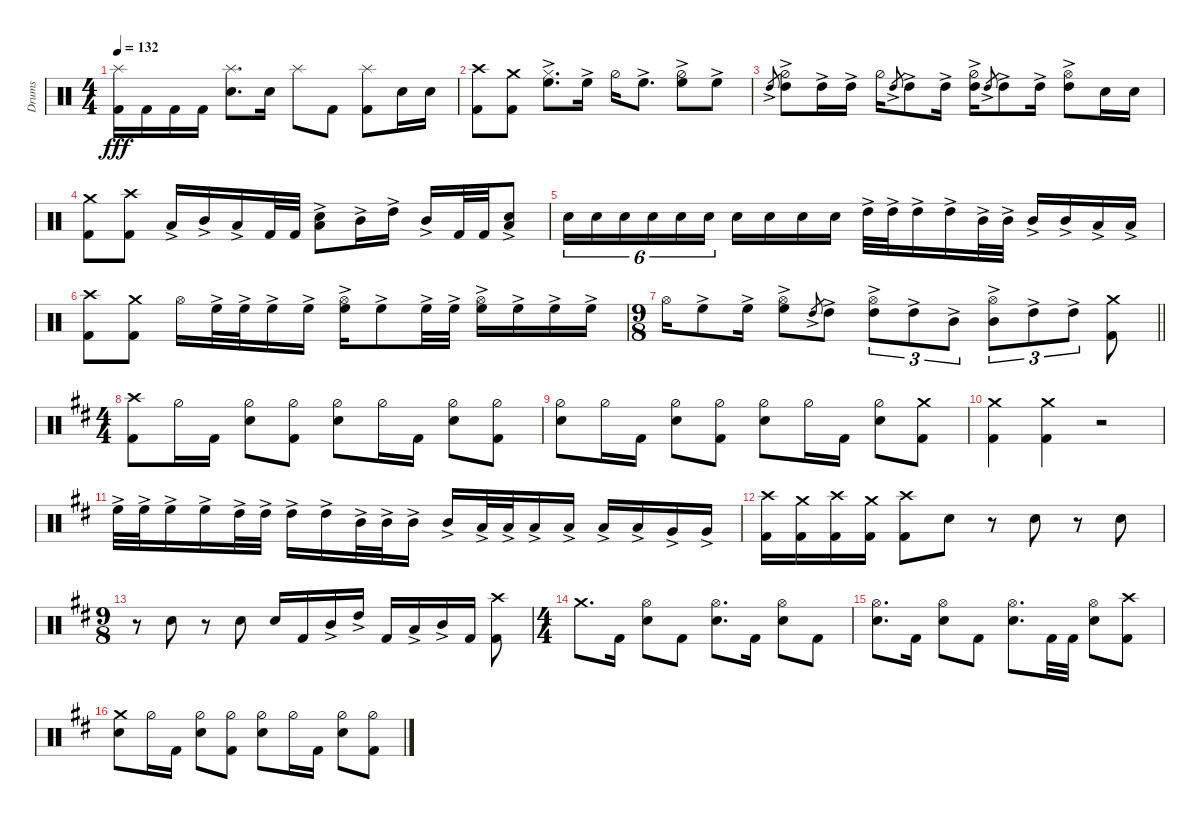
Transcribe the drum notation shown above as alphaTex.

\defaultSystemsLayout 4
\bracketExtendMode groupsimilarinstruments
\otherSystemsTrackNameOrientation horizontal
\track ("Drumkit" "Drums") {multiBarRest instrument percussion}
\staff {score}
\articulation defaults
\ts (4 4)
\tempo 132
\clef neutral
\ks c
("Kick (hit) 2" "Splash (hit)").16{dy fff} "Kick (hit) 2".16 "Kick (hit) 2".16 "Kick (hit) 2".16 ("Snare (hit) 2" "Splash (hit)").8{d} "Snare (hit) 2".16 "Splash (hit)".8 "Kick (hit) 2".8{beam split} ("Kick (hit) 2" "Splash (hit)").8{beam merge} "Snare (hit) 2".16{beam merge} "Snare (hit) 2".16 |
("Crash high (hit)" "Kick (hit) 2").8 ("Crash medium (hit)" "Kick (hit) 2").8 ("High Floor Tom (hit)"{ac} "Hi-Hat (closed)").8{d} "High Floor Tom (hit)"{ac}.16 "Hi-Hat (half)".16 "High Floor Tom (hit)"{ac}.8{d beam split} ("High Floor Tom (hit)"{ac} "Hi-Hat (half)").8{beam merge} "High Floor Tom (hit)"{ac}.8 |
"High Tom (hit)"{ac}.8{gr} ("Hi-Hat (half)" "High Tom (hit)"{ac}).8 "High Tom (hit)"{ac}.16 "High Tom (hit)"{ac}.16 "Hi-Hat (half)".16 "High Tom (hit)"{ac}.8{gr} "High Tom (hit)"{ac}.8 "High Tom (hit)"{ac}.16 ("Hi-Hat (half)" "High Tom (hit)"{ac}).16 "High Tom (hit)"{ac}.8{gr} "High Tom (hit)"{ac}.8 "High Tom (hit)"{ac}.16{beam split} ("Hi-Hat (open)" "High Tom (hit)"{ac}).8{beam merge} "Snare (hit) 2".16{beam merge} "Snare (hit) 2".16 |
("Kick (hit) 2" "Crash medium (hit)").8 ("Kick (hit) 2" "Crash high (hit)").8 "Low Tom (hit)"{ac}.16 "Mid Tom (hit)"{ac}.16 "Low Tom (hit)"{ac}.16 "Kick (hit) 2".32 "Kick (hit) 2".32 ("Low Tom (hit)"{ac} "Snare (hit) 2").8 "Mid Tom (hit)"{ac}.16 "High Tom (hit)"{ac}.16{beam split} "Mid Tom (hit)"{ac}.16 "Kick (hit) 2".32{beam merge} "Kick (hit) 2".32{beam merge} ("Snare (hit) 2" "Low Tom (hit)"{ac}).8 |
"Snare (hit) 2".16{tu (6 4)} "Snare (hit) 2".16{tu (6 4)} "Snare (hit) 2".16{tu (6 4)} "Snare (hit) 2".16{tu (6 4)} "Snare (hit) 2".16{tu (6 4)} "Snare (hit) 2".16{tu (6 4)} "Snare (hit) 2".16 "Snare (hit) 2".16 "Snare (hit) 2".16 "Snare (hit) 2".16 "High Tom (hit)"{ac}.32 "High Tom (hit)"{ac}.32 "High Tom (hit)"{ac}.16 "High Tom (hit)"{ac}.16 "Mid Tom (hit)"{ac}.32 "Mid Tom (hit)"{ac}.32{beam split} "Mid Tom (hit)"{ac}.16 "Mid Tom (hit)"{ac}.16{beam merge} "Low Tom (hit)"{ac}.16{beam merge} "Low Tom (hit)"{ac}.16 |
("Crash high (hit)" "Kick (hit) 2").8 ("Crash medium (hit)" "Kick (hit) 2").8 "Hi-Hat (open)".16 "High Floor Tom (hit)"{ac}.32 "High Floor Tom (hit)"{ac}.32 "High Floor Tom (hit)"{ac}.16 "High Floor Tom (hit)"{ac}.16 ("High Floor Tom (hit)"{ac} "Hi-Hat (open)").16 "High Floor Tom (hit)"{ac}.8 "High Floor Tom (hit)"{ac}.32 "High Floor Tom (hit)"{ac}.32{beam split} ("High Floor Tom (hit)"{ac} "Hi-Hat (open)").16 "High Floor Tom (hit)"{ac}.16{beam merge} "High Floor Tom (hit)"{ac}.16{beam merge} "High Floor Tom (hit)"{ac}.16 |
\ts (9 8)
\beaming (8 2 2 3)
\barLineRight lightlight "Hi-Hat (open)".16 "High Floor Tom (hit)"{ac}.8 "High Floor Tom (hit)"{ac}.16
("High Floor Tom (hit)"{ac} "Hi-Hat (open)").8 "High Tom (hit)"{ac}.8{gr} "High Tom (hit)"{ac}.8 ("High Tom (hit)"{ac} "Hi-Hat (open)").8{tu (3 2)} "High Tom (hit)"{ac}.8{tu (3 2)} "Mid Tom (hit)"{ac}.8{tu (3 2)} ("Mid Tom (hit)"{ac} "Hi-Hat (open)").8{tu (3 2)} "High Tom (hit)"{ac}.8{tu (3 2)} "High Tom (hit)"{ac}.8{tu (3 2)} ("Crash medium (hit)" "Kick (hit) 2").8 |
\ts (4 4)
\beaming (8 2 2 3)
\ks d
("Kick (hit) 2"{acc forcenatural} "Crash high (hit)"{acc forcenatural}).8 "Hi-Hat (half)"{acc forcenatural}.16 "Kick (hit) 2"{acc forcenatural}.16 ("Snare (hit) 2"{acc forcenatural} "Hi-Hat (half)"{acc forcenatural}).8 ("Kick (hit) 2"{acc forcenatural} "Hi-Hat (half)"{acc forcenatural}).8 ("Snare (hit) 2"{acc forcenatural} "Hi-Hat (half)"{acc forcenatural}).8 "Hi-Hat (half)"{acc forcenatural}.16 "Kick (hit) 2"{acc forcenatural}.16{beam split} ("Snare (hit) 2"{acc forcenatural} "Hi-Hat (half)"{acc forcenatural}).8{beam merge} ("Kick (hit) 2"{acc forcenatural} "Hi-Hat (half)"{acc forcenatural}).8 |
("Snare (hit) 2"{acc forcenatural} "Hi-Hat (half)"{acc forcenatural}).8 "Hi-Hat (half)"{acc forcenatural}.16 "Kick (hit) 2"{acc forcenatural}.16 ("Snare (hit) 2"{acc forcenatural} "Hi-Hat (half)"{acc forcenatural}).8 ("Kick (hit) 2"{acc forcenatural} "Hi-Hat (half)"{acc forcenatural}).8 ("Snare (hit) 2"{acc forcenatural} "Hi-Hat (half)"{acc forcenatural}).8 "Hi-Hat (half)"{acc forcenatural}.16 "Kick (hit) 2"{acc forcenatural}.16{beam split} ("Snare (hit) 2"{acc forcenatural} "Hi-Hat (half)"{acc forcenatural}).8{beam merge} ("Kick (hit) 2"{acc forcenatural} "Crash medium (hit)"{acc forcenatural}).8 |
("Kick (hit) 2"{acc forcenatural} "Crash medium (hit)"{acc forcenatural}).4 ("Crash medium (hit)"{acc forcenatural} "Kick (hit) 2"{acc forcenatural}).4 r.2 |
"High Floor Tom (hit)"{ac acc forcenatural}.32 "High Floor Tom (hit)"{ac acc forcenatural}.32 "High Floor Tom (hit)"{ac acc forcenatural}.16 "High Floor Tom (hit)"{ac acc forcenatural}.16 "High Tom (hit)"{ac acc forcenatural}.32 "High Tom (hit)"{ac acc forcenatural}.32 "High Tom (hit)"{ac acc forcenatural}.16 "High Tom (hit)"{ac acc forcenatural}.16 "Mid Tom (hit)"{ac acc forcenatural}.32 "Mid Tom (hit)"{ac acc forcenatural}.32 "Mid Tom (hit)"{ac acc forcenatural}.16 "Mid Tom (hit)"{ac acc forcenatural}.16 "Low Tom (hit)"{ac acc forcenatural}.32 "Low Tom (hit)"{ac acc forcenatural}.32 "Low Tom (hit)"{ac acc forcenatural}.16 "Low Tom (hit)"{ac acc forcenatural}.16{beam split} "Low Tom (hit)"{ac acc forcenatural}.16 "Low Tom (hit)"{ac acc forcenatural}.16{beam merge} "Very Low Tom (hit)"{ac acc forcenatural}.16{beam merge} "Very Low Tom (hit)"{ac acc forcenatural}.16 |
("Kick (hit) 2"{acc forcenatural} "Crash high (hit)"{acc forcenatural}).16 ("Kick (hit) 2"{acc forcenatural} "Crash medium (hit)"{acc forcenatural}).16 ("Kick (hit) 2"{acc forcenatural} "Crash high (hit)"{acc forcenatural}).16 ("Kick (hit) 2"{acc forcenatural} "Crash medium (hit)"{acc forcenatural}).16 ("Kick (hit) 2"{acc forcenatural} "Crash high (hit)"{acc forcenatural}).8 "Snare (hit) 2"{acc forcenatural}.8 r.8 "Snare (hit) 2"{acc forcenatural}.8 r.8 "Snare (hit) 2"{acc forcenatural}.8 |
\ts (9 8)
\beaming (8 2 2 3)
r.8 "Snare (hit) 2"{acc forcenatural}.8 r.8 "Snare (hit) 2"{acc forcenatural}.8 "Snare (hit) 2"{acc forcenatural}.16 "Kick (hit) 2"{acc forcenatural}.16 "Mid Tom (hit)"{ac acc forcenatural}.16 "High Tom (hit)"{ac acc forcenatural}.16{beam split} "Kick (hit) 2"{acc forcenatural}.16 "Low Tom (hit)"{ac acc forcenatural}.16{beam merge} "Mid Tom (hit)"{ac acc forcenatural}.16{beam merge} "Kick (hit) 2"{acc forcenatural}.16 ("Kick (hit) 2"{acc forcenatural} "Crash high (hit)"{acc forcenatural}).8 |
\ts (4 4)
\beaming (8 2 2 2 2)
"Crash medium (hit)"{acc forcenatural}.8{d} "Kick (hit) 2"{acc forcenatural}.16 ("Snare (hit) 2"{acc forcenatural} "Hi-Hat (open)"{acc forcenatural}).8 "Kick (hit) 2"{acc forcenatural}.8 ("Snare (hit) 2"{acc forcenatural} "Hi-Hat (open)"{acc forcenatural}).8{d} "Kick (hit) 2"{acc forcenatural}.16 ("Snare (hit) 2"{acc forcenatural} "Hi-Hat (open)"{acc forcenatural}).8 "Kick (hit) 2"{acc forcenatural}.8 |
("Snare (hit) 2"{acc forcenatural} "Hi-Hat (open)"{acc forcenatural}).8{d} "Kick (hit) 2"{acc forcenatural}.16 ("Snare (hit) 2"{acc forcenatural} "Hi-Hat (open)"{acc forcenatural}).8 "Kick (hit) 2"{acc forcenatural}.8 ("Snare (hit) 2"{acc forcenatural} "Hi-Hat (open)"{acc forcenatural}).8{d} "Kick (hit) 2"{acc forcenatural}.32 "Kick (hit) 2"{acc forcenatural}.32 ("Snare (hit) 2"{acc forcenatural} "Hi-Hat (open)"{acc forcenatural}).8 ("Kick (hit) 2"{acc forcenatural} "Crash high (hit)"{acc forcenatural}).8 |
("Snare (hit) 2"{acc forcenatural} "Crash medium (hit)"{acc forcenatural}).8 "Hi-Hat (half)"{acc forcenatural}.16 "Kick (hit) 2"{acc forcenatural}.16 ("Snare (hit) 2"{acc forcenatural} "Hi-Hat (half)"{acc forcenatural}).8 ("Kick (hit) 2"{acc forcenatural} "Hi-Hat (half)"{acc forcenatural}).8 ("Snare (hit) 2"{acc forcenatural} "Hi-Hat (half)"{acc forcenatural}).8 "Hi-Hat (half)"{acc forcenatural}.16 "Kick (hit) 2"{acc forcenatural}.16 ("Snare (hit) 2"{acc forcenatural} "Hi-Hat (half)"{acc forcenatural}).8 ("Kick (hit) 2"{acc forcenatural} "Hi-Hat (half)"{acc forcenatural}).8
